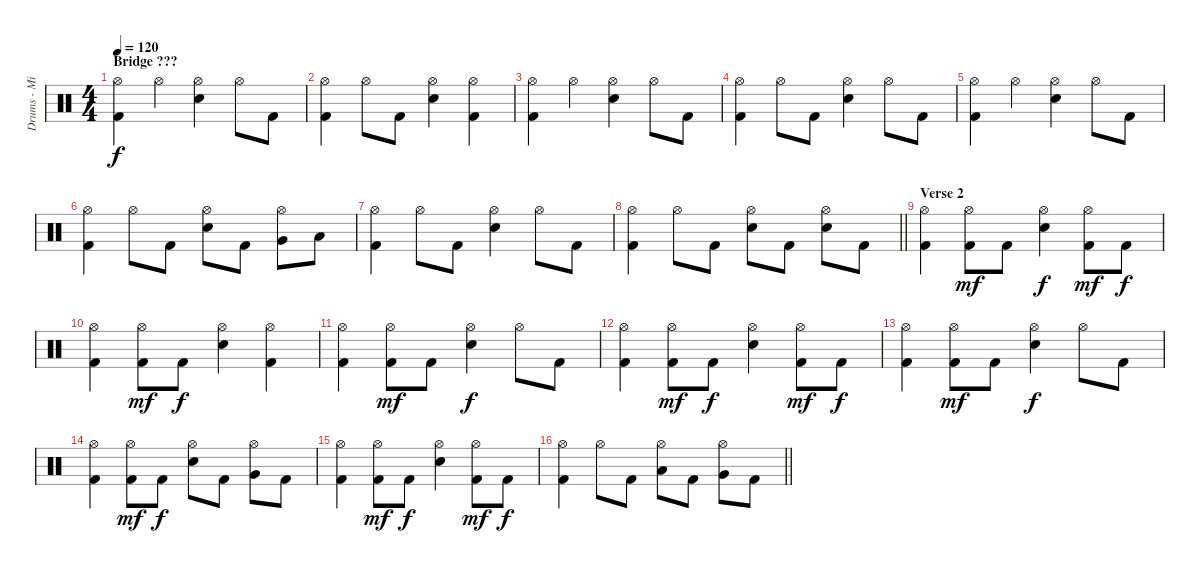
\track ("Drums - Mikko" "Drums - Mi") {instrument percussion}
\staff {score}
\articulation defaults
\ts (4 4)
\section ("" "Bridge ???")
\tempo 120
\clef neutral
\ks c
("Hi-Hat (open)" "Kick (hit) 2").4{dy f} "Hi-Hat (open)".4 ("Hi-Hat (open)" "Snare (hit) 2").4 "Hi-Hat (open)".8 "Kick (hit) 2".8 |
("Hi-Hat (open)" "Kick (hit) 2").4 "Hi-Hat (open)".8 "Kick (hit) 2".8 ("Hi-Hat (open)" "Snare (hit) 2").4 ("Hi-Hat (open)" "Kick (hit) 2").4 |
("Hi-Hat (open)" "Kick (hit) 2").4 "Hi-Hat (open)".4 ("Hi-Hat (open)" "Snare (hit) 2").4 "Hi-Hat (open)".8 "Kick (hit) 2".8 |
("Hi-Hat (open)" "Kick (hit) 2").4 "Hi-Hat (open)".8 "Kick (hit) 2".8 ("Hi-Hat (open)" "Snare (hit) 2").4 "Hi-Hat (open)".8 "Kick (hit) 2".8 |
("Hi-Hat (open)" "Kick (hit) 2").4 "Hi-Hat (open)".4 ("Hi-Hat (open)" "Snare (hit) 2").4 "Hi-Hat (open)".8 "Kick (hit) 2".8 |
("Hi-Hat (open)" "Kick (hit) 2").4 "Hi-Hat (open)".8 "Kick (hit) 2".8 ("Hi-Hat (open)" "Snare (hit) 2").8 "Kick (hit) 2".8 ("Hi-Hat (open)" "Very Low Tom (hit)").8 "Low Floor Tom (hit)".8 |
("Hi-Hat (open)" "Kick (hit) 2").4 "Hi-Hat (open)".8 "Kick (hit) 2".8 ("Hi-Hat (open)" "Snare (hit) 2").4 "Hi-Hat (open)".8 "Kick (hit) 2".8 |
\barLineRight lightlight
("Hi-Hat (open)" "Kick (hit) 2").4 "Hi-Hat (open)".8 "Kick (hit) 2".8 ("Hi-Hat (open)" "Snare (hit) 2").8 "Kick (hit) 2".8 ("Hi-Hat (open)" "Snare (hit) 2").8 "Kick (hit) 2".8 |
\section ("" "Verse 2")
("Hi-Hat (open)" "Kick (hit) 2").4 ("Hi-Hat (open)" "Kick (hit) 2").8{dy mf} "Kick (hit) 2".8 ("Hi-Hat (open)" "Snare (hit) 2").4{dy f} ("Hi-Hat (open)" "Kick (hit) 2").8{dy mf} "Kick (hit) 2".8{dy f} |
("Hi-Hat (open)" "Kick (hit) 2").4 ("Hi-Hat (open)" "Kick (hit) 2").8{dy mf} "Kick (hit) 2".8{dy f} ("Hi-Hat (open)" "Snare (hit) 2").4 ("Hi-Hat (open)" "Kick (hit) 2").4 |
("Hi-Hat (open)" "Kick (hit) 2").4 ("Hi-Hat (open)" "Kick (hit) 2").8{dy mf} "Kick (hit) 2".8 ("Hi-Hat (open)" "Snare (hit) 2").4{dy f} "Hi-Hat (open)".8 "Kick (hit) 2".8 |
("Hi-Hat (open)" "Kick (hit) 2").4 ("Hi-Hat (open)" "Kick (hit) 2").8{dy mf} "Kick (hit) 2".8{dy f} ("Hi-Hat (open)" "Snare (hit) 2").4 ("Hi-Hat (open)" "Kick (hit) 2").8{dy mf} "Kick (hit) 2".8{dy f} |
("Hi-Hat (open)" "Kick (hit) 2").4 ("Hi-Hat (open)" "Kick (hit) 2").8{dy mf} "Kick (hit) 2".8 ("Hi-Hat (open)" "Snare (hit) 2").4{dy f} "Hi-Hat (open)".8 "Kick (hit) 2".8 |
("Hi-Hat (open)" "Kick (hit) 2").4 ("Hi-Hat (open)" "Kick (hit) 2").8{dy mf} "Kick (hit) 2".8{dy f} ("Hi-Hat (open)" "Snare (hit) 2").8 "Kick (hit) 2".8 ("Hi-Hat (open)" "Very Low Tom (hit)").8 "Kick (hit) 2".8 |
("Hi-Hat (open)" "Kick (hit) 2").4 ("Hi-Hat (open)" "Kick (hit) 2").8{dy mf} "Kick (hit) 2".8{dy f} ("Hi-Hat (open)" "Snare (hit) 2").4 ("Hi-Hat (open)" "Kick (hit) 2").8{dy mf} "Kick (hit) 2".8{dy f} |
\barLineRight lightlight
("Hi-Hat (open)" "Kick (hit) 2").4 "Hi-Hat (open)".8 "Kick (hit) 2".8 ("Hi-Hat (open)" "Low Tom (hit)").8 "Kick (hit) 2".8 ("Hi-Hat (open)" "Very Low Tom (hit)").8 "Kick (hit) 2".8
